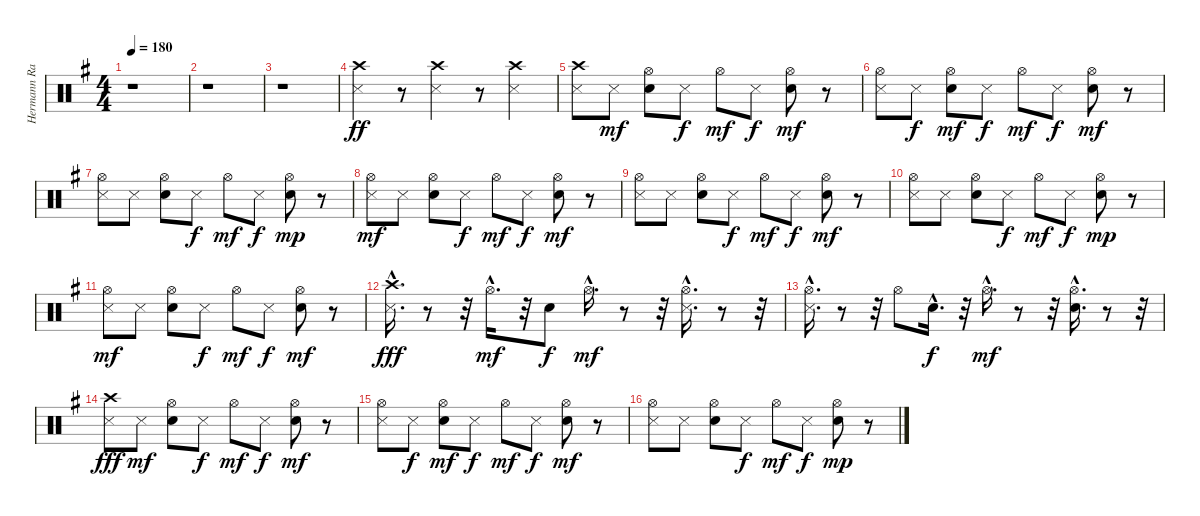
\track ("Hermann Rarebel" "Hermann Ra") {instrument percussion}
\staff {score}
\articulation defaults
\ts (4 4)
\tempo 180
\clef neutral
\ks eminor
r.1{dy ff} |
r.1 |
r.1 |
("Crash high (hit)" "Metronome (hit)").4 r.8 ("Crash high (hit)" "Metronome (hit)").4 r.8 ("Metronome (hit)" "Crash high (hit)").4 |
("Crash high (hit)" "Metronome (hit)").8 "Metronome (hit)".8{dy mf} ("Hi-Hat (open)" "Snare (hit) 2").8 "Metronome (hit)".8{dy f} "Hi-Hat (open)".8{dy mf} "Metronome (hit)".8{dy f} ("Hi-Hat (open)" "Snare (hit) 2").8{dy mf} r.8 |
("Hi-Hat (open)" "Metronome (hit)").8 "Metronome (hit)".8{dy f} ("Hi-Hat (open)" "Snare (hit) 2").8{dy mf} "Metronome (hit)".8{dy f} "Hi-Hat (open)".8{dy mf} "Metronome (hit)".8{dy f} ("Hi-Hat (open)" "Snare (hit) 2").8{dy mf} r.8 |
("Hi-Hat (open)" "Metronome (hit)").8 "Metronome (hit)".8 ("Hi-Hat (open)" "Snare (hit) 2").8 "Metronome (hit)".8{dy f} "Hi-Hat (open)".8{dy mf} "Metronome (hit)".8{dy f} ("Hi-Hat (open)" "Snare (hit) 2").8{dy mp} r.8 |
("Hi-Hat (open)" "Metronome (hit)").8{dy mf} "Metronome (hit)".8 ("Hi-Hat (open)" "Snare (hit) 2").8 "Metronome (hit)".8{dy f} "Hi-Hat (open)".8{dy mf} "Metronome (hit)".8{dy f} ("Hi-Hat (open)" "Snare (hit) 2").8{dy mf} r.8 |
("Hi-Hat (open)" "Metronome (hit)").8 "Metronome (hit)".8 ("Hi-Hat (open)" "Snare (hit) 2").8 "Metronome (hit)".8{dy f} "Hi-Hat (open)".8{dy mf} "Metronome (hit)".8{dy f} ("Hi-Hat (open)" "Snare (hit) 2").8{dy mf} r.8 |
("Hi-Hat (open)" "Metronome (hit)").8 "Metronome (hit)".8 ("Hi-Hat (open)" "Snare (hit) 2").8 "Metronome (hit)".8{dy f} "Hi-Hat (open)".8{dy mf} "Metronome (hit)".8{dy f} ("Hi-Hat (open)" "Snare (hit) 2").8{dy mp} r.8 |
("Hi-Hat (open)" "Metronome (hit)").8{dy mf} "Metronome (hit)".8 ("Hi-Hat (open)" "Snare (hit) 2").8 "Metronome (hit)".8{dy f} "Hi-Hat (open)".8{dy mf} "Metronome (hit)".8{dy f} ("Hi-Hat (open)" "Snare (hit) 2").8{dy mf} r.8 |
("Metronome (hit)"{hac} "Crash high (hit)"{hac}).16{d dy fff} r.8 r.32 "Hi-Hat (open)"{hac}.16{d dy mf} r.32 "Snare (hit) 2".8{dy f} "Hi-Hat (open)"{hac}.16{d dy mf} r.8 r.32 ("Hi-Hat (open)"{hac} "Metronome (hit)"{hac}).16{d} r.8 r.32 |
("Hi-Hat (open)"{hac} "Metronome (hit)"{hac}).16{d} r.8 r.32 "Hi-Hat (open)".8 "Snare (hit) 2"{hac}.16{d dy f} r.32 "Hi-Hat (open)"{hac}.16{d dy mf} r.8 r.32 ("Snare (hit) 2"{hac} "Hi-Hat (open)"{hac}).16{d} r.8 r.32 |
("Crash high (hit)" "Metronome (hit)").8{dy fff} "Metronome (hit)".8{dy mf} ("Hi-Hat (open)" "Snare (hit) 2").8 "Metronome (hit)".8{dy f} "Hi-Hat (open)".8{dy mf} "Metronome (hit)".8{dy f} ("Hi-Hat (open)" "Snare (hit) 2").8{dy mf} r.8 |
("Hi-Hat (open)" "Metronome (hit)").8 "Metronome (hit)".8{dy f} ("Hi-Hat (open)" "Snare (hit) 2").8{dy mf} "Metronome (hit)".8{dy f} "Hi-Hat (open)".8{dy mf} "Metronome (hit)".8{dy f} ("Hi-Hat (open)" "Snare (hit) 2").8{dy mf} r.8 |
("Hi-Hat (open)" "Metronome (hit)").8 "Metronome (hit)".8 ("Hi-Hat (open)" "Snare (hit) 2").8 "Metronome (hit)".8{dy f} "Hi-Hat (open)".8{dy mf} "Metronome (hit)".8{dy f} ("Hi-Hat (open)" "Snare (hit) 2").8{dy mp} r.8
